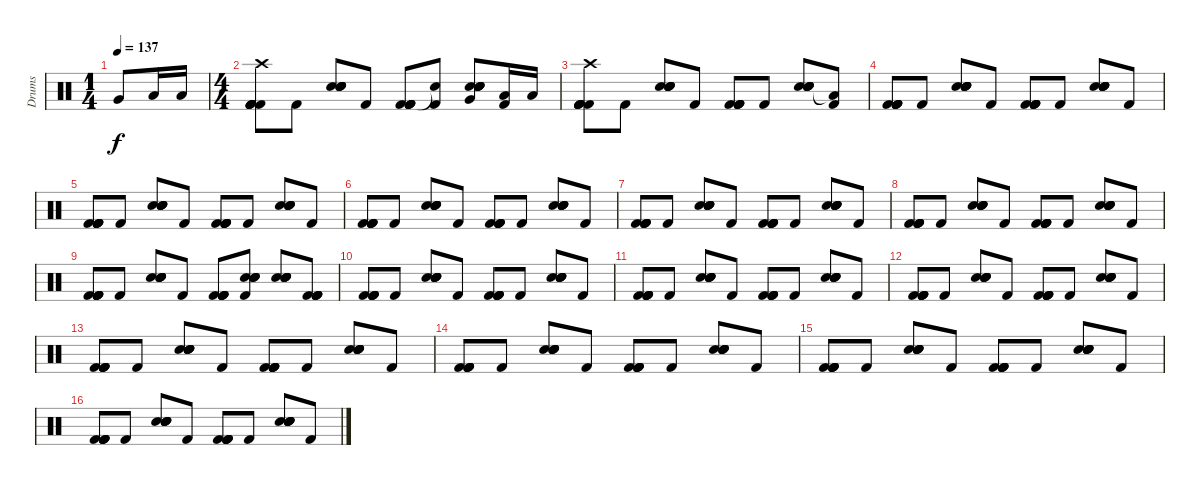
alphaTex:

\track ("Drums" "Drums") {instrument percussion}
\staff {score}
\articulation defaults
\ts (1 4)
\tempo 137
\clef neutral
\ks c "Very Low Tom (hit)".8{dy f} "Low Floor Tom (hit)".16 "Low Floor Tom (hit)".16
|
\ts (4 4)
("Crash high (hit)" "Kick (hit) 2" "Kick (hit) 2" "Kick (hit) 2" "Kick (hit) 2" "Kick (hit) 2").8 "Kick (hit) 2".8 ("Snare (hit) 2" "Snare (hit) 2" "Snare (hit) 2" "Snare (hit) 2" "Snare (hit) 2").8 "Kick (hit) 2".8 ("Kick (hit) 2" "Kick (hit) 2" "Kick (hit) 2" "Kick (hit) 2" "Kick (hit) 2").8 ("Snare (hit)"{t} "Kick (hit) 2").8 ("Very Low Tom (hit)" "Snare (hit) 2" "Snare (hit) 2" "Snare (hit) 2" "Snare (hit) 2" "Snare (hit) 2").8 ("Low Floor Tom (hit)" "Kick (hit) 2").16 "Low Floor Tom (hit)".16 |
("Crash high (hit)" "Kick (hit) 2" "Kick (hit) 2" "Kick (hit) 2" "Kick (hit) 2" "Kick (hit) 2").8 "Kick (hit) 2".8 ("Snare (hit) 2" "Snare (hit) 2" "Snare (hit) 2" "Snare (hit) 2" "Snare (hit) 2").8 "Kick (hit) 2".8 ("Kick (hit) 2" "Kick (hit) 2" "Kick (hit) 2" "Kick (hit) 2" "Kick (hit) 2").8 "Kick (hit) 2".8 ("Snare (hit) 2" "Snare (hit) 2" "Snare (hit) 2" "Snare (hit) 2" "Snare (hit) 2").8 ("Low Floor Tom (hit)"{t} "Kick (hit) 2").8 |
("Kick (hit) 2" "Kick (hit) 2" "Kick (hit) 2" "Kick (hit) 2" "Kick (hit) 2").8 "Kick (hit) 2".8 ("Snare (hit) 2" "Snare (hit) 2" "Snare (hit) 2" "Snare (hit) 2" "Snare (hit) 2").8 "Kick (hit) 2".8 ("Kick (hit) 2" "Kick (hit) 2" "Kick (hit) 2" "Kick (hit) 2" "Kick (hit) 2").8 "Kick (hit) 2".8 ("Snare (hit) 2" "Snare (hit) 2" "Snare (hit) 2" "Snare (hit) 2" "Snare (hit) 2").8 "Kick (hit) 2".8 |
("Kick (hit) 2" "Kick (hit) 2" "Kick (hit) 2" "Kick (hit) 2" "Kick (hit) 2").8 "Kick (hit) 2".8 ("Snare (hit) 2" "Snare (hit) 2" "Snare (hit) 2" "Snare (hit) 2" "Snare (hit) 2").8 "Kick (hit) 2".8 ("Kick (hit) 2" "Kick (hit) 2" "Kick (hit) 2" "Kick (hit) 2" "Kick (hit) 2").8 "Kick (hit) 2".8 ("Snare (hit) 2" "Snare (hit) 2" "Snare (hit) 2" "Snare (hit) 2" "Snare (hit) 2").8 "Kick (hit) 2".8 |
("Kick (hit) 2" "Kick (hit) 2" "Kick (hit) 2" "Kick (hit) 2" "Kick (hit) 2").8 "Kick (hit) 2".8 ("Snare (hit) 2" "Snare (hit) 2" "Snare (hit) 2" "Snare (hit) 2" "Snare (hit) 2").8 "Kick (hit) 2".8 ("Kick (hit) 2" "Kick (hit) 2" "Kick (hit) 2" "Kick (hit) 2" "Kick (hit) 2").8 "Kick (hit) 2".8 ("Snare (hit) 2" "Snare (hit) 2" "Snare (hit) 2" "Snare (hit) 2" "Snare (hit) 2").8 "Kick (hit) 2".8 |
("Kick (hit) 2" "Kick (hit) 2" "Kick (hit) 2" "Kick (hit) 2" "Kick (hit) 2").8 "Kick (hit) 2".8 ("Snare (hit) 2" "Snare (hit) 2" "Snare (hit) 2" "Snare (hit) 2" "Snare (hit) 2").8 "Kick (hit) 2".8 ("Kick (hit) 2" "Kick (hit) 2" "Kick (hit) 2" "Kick (hit) 2" "Kick (hit) 2").8 "Kick (hit) 2".8 ("Snare (hit) 2" "Snare (hit) 2" "Snare (hit) 2" "Snare (hit) 2" "Snare (hit) 2").8 "Kick (hit) 2".8 |
("Kick (hit) 2" "Kick (hit) 2" "Kick (hit) 2" "Kick (hit) 2" "Kick (hit) 2").8 "Kick (hit) 2".8 ("Snare (hit) 2" "Snare (hit) 2" "Snare (hit) 2" "Snare (hit) 2" "Snare (hit) 2").8 "Kick (hit) 2".8 ("Kick (hit) 2" "Kick (hit) 2" "Kick (hit) 2" "Kick (hit) 2" "Kick (hit) 2").8 "Kick (hit) 2".8 ("Snare (hit) 2" "Snare (hit) 2" "Snare (hit) 2" "Snare (hit) 2" "Snare (hit) 2").8 "Kick (hit) 2".8 |
("Kick (hit) 2" "Kick (hit) 2" "Kick (hit) 2" "Kick (hit) 2" "Kick (hit) 2").8 "Kick (hit) 2".8 ("Snare (hit) 2" "Snare (hit) 2" "Snare (hit) 2" "Snare (hit) 2" "Snare (hit) 2").8 "Kick (hit) 2".8 ("Kick (hit) 2" "Kick (hit) 2" "Kick (hit) 2" "Kick (hit) 2" "Kick (hit) 2").8 ("Kick (hit) 2" "Snare (hit) 2" "Snare (hit) 2" "Snare (hit) 2" "Snare (hit) 2").8 ("Snare (hit) 2" "Snare (hit) 2" "Snare (hit) 2" "Snare (hit) 2" "Snare (hit) 2").8 ("Kick (hit) 2" "Kick (hit) 2" "Kick (hit) 2" "Kick (hit) 2" "Kick (hit) 2").8 |
("Kick (hit) 2" "Kick (hit) 2" "Kick (hit) 2" "Kick (hit) 2" "Kick (hit) 2").8 "Kick (hit) 2".8 ("Snare (hit) 2" "Snare (hit) 2" "Snare (hit) 2" "Snare (hit) 2" "Snare (hit) 2").8 "Kick (hit) 2".8 ("Kick (hit) 2" "Kick (hit) 2" "Kick (hit) 2" "Kick (hit) 2" "Kick (hit) 2").8 "Kick (hit) 2".8 ("Snare (hit) 2" "Snare (hit) 2" "Snare (hit) 2" "Snare (hit) 2" "Snare (hit) 2").8 "Kick (hit) 2".8 |
("Kick (hit) 2" "Kick (hit) 2" "Kick (hit) 2" "Kick (hit) 2" "Kick (hit) 2").8 "Kick (hit) 2".8 ("Snare (hit) 2" "Snare (hit) 2" "Snare (hit) 2" "Snare (hit) 2" "Snare (hit) 2").8 "Kick (hit) 2".8 ("Kick (hit) 2" "Kick (hit) 2" "Kick (hit) 2" "Kick (hit) 2" "Kick (hit) 2").8 "Kick (hit) 2".8 ("Snare (hit) 2" "Snare (hit) 2" "Snare (hit) 2" "Snare (hit) 2" "Snare (hit) 2").8 "Kick (hit) 2".8 |
("Kick (hit) 2" "Kick (hit) 2" "Kick (hit) 2" "Kick (hit) 2" "Kick (hit) 2").8 "Kick (hit) 2".8 ("Snare (hit) 2" "Snare (hit) 2" "Snare (hit) 2" "Snare (hit) 2" "Snare (hit) 2").8 "Kick (hit) 2".8 ("Kick (hit) 2" "Kick (hit) 2" "Kick (hit) 2" "Kick (hit) 2" "Kick (hit) 2").8 "Kick (hit) 2".8 ("Snare (hit) 2" "Snare (hit) 2" "Snare (hit) 2" "Snare (hit) 2" "Snare (hit) 2").8 "Kick (hit) 2".8 |
("Kick (hit) 2" "Kick (hit) 2" "Kick (hit) 2" "Kick (hit) 2" "Kick (hit) 2").8 "Kick (hit) 2".8 ("Snare (hit) 2" "Snare (hit) 2" "Snare (hit) 2" "Snare (hit) 2" "Snare (hit) 2").8 "Kick (hit) 2".8 ("Kick (hit) 2" "Kick (hit) 2" "Kick (hit) 2" "Kick (hit) 2" "Kick (hit) 2").8 "Kick (hit) 2".8 ("Snare (hit) 2" "Snare (hit) 2" "Snare (hit) 2" "Snare (hit) 2" "Snare (hit) 2").8 "Kick (hit) 2".8 |
("Kick (hit) 2" "Kick (hit) 2" "Kick (hit) 2" "Kick (hit) 2" "Kick (hit) 2").8 "Kick (hit) 2".8 ("Snare (hit) 2" "Snare (hit) 2" "Snare (hit) 2" "Snare (hit) 2" "Snare (hit) 2").8 "Kick (hit) 2".8 ("Kick (hit) 2" "Kick (hit) 2" "Kick (hit) 2" "Kick (hit) 2" "Kick (hit) 2").8 "Kick (hit) 2".8 ("Snare (hit) 2" "Snare (hit) 2" "Snare (hit) 2" "Snare (hit) 2" "Snare (hit) 2").8 "Kick (hit) 2".8 |
("Kick (hit) 2" "Kick (hit) 2" "Kick (hit) 2" "Kick (hit) 2" "Kick (hit) 2").8 "Kick (hit) 2".8 ("Snare (hit) 2" "Snare (hit) 2" "Snare (hit) 2" "Snare (hit) 2" "Snare (hit) 2").8 "Kick (hit) 2".8 ("Kick (hit) 2" "Kick (hit) 2" "Kick (hit) 2" "Kick (hit) 2" "Kick (hit) 2").8 "Kick (hit) 2".8 ("Snare (hit) 2" "Snare (hit) 2" "Snare (hit) 2" "Snare (hit) 2" "Snare (hit) 2").8 "Kick (hit) 2".8 |
("Kick (hit) 2" "Kick (hit) 2" "Kick (hit) 2" "Kick (hit) 2" "Kick (hit) 2").8 "Kick (hit) 2".8 ("Snare (hit) 2" "Snare (hit) 2" "Snare (hit) 2" "Snare (hit) 2" "Snare (hit) 2").8 "Kick (hit) 2".8 ("Kick (hit) 2" "Kick (hit) 2" "Kick (hit) 2" "Kick (hit) 2" "Kick (hit) 2").8 "Kick (hit) 2".8 ("Snare (hit) 2" "Snare (hit) 2" "Snare (hit) 2" "Snare (hit) 2" "Snare (hit) 2").8 "Kick (hit) 2".8
